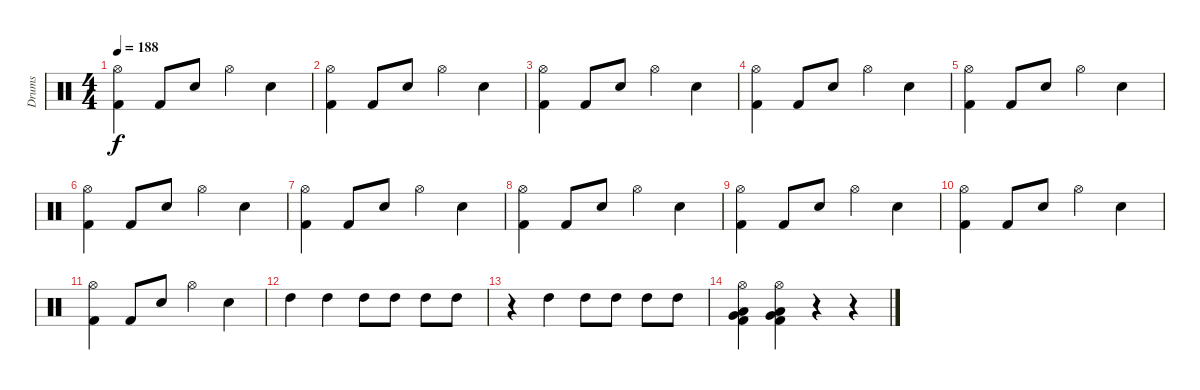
\track ("Drums" "Drums") {instrument percussion}
\staff {score}
\articulation defaults
\ts (4 4)
\tempo 188
\clef neutral
\ks c
("Hi-Hat (open)" "Kick (hit) 2").4{dy f} "Kick (hit) 2".8 "Electric Snare (hit)".8 "Hi-Hat (open)".4 "Electric Snare (hit)".4 |
("Hi-Hat (open)" "Kick (hit) 2").4 "Kick (hit) 2".8 "Electric Snare (hit)".8 "Hi-Hat (open)".4 "Electric Snare (hit)".4 |
("Hi-Hat (open)" "Kick (hit) 2").4 "Kick (hit) 2".8 "Electric Snare (hit)".8 "Hi-Hat (open)".4 "Electric Snare (hit)".4 |
("Hi-Hat (open)" "Kick (hit) 2").4 "Kick (hit) 2".8 "Electric Snare (hit)".8 "Hi-Hat (open)".4 "Electric Snare (hit)".4 |
("Hi-Hat (open)" "Kick (hit) 2").4 "Kick (hit) 2".8 "Electric Snare (hit)".8 "Hi-Hat (open)".4 "Electric Snare (hit)".4 |
("Hi-Hat (open)" "Kick (hit) 2").4 "Kick (hit) 2".8 "Electric Snare (hit)".8 "Hi-Hat (open)".4 "Electric Snare (hit)".4 |
("Hi-Hat (open)" "Kick (hit) 2").4 "Kick (hit) 2".8 "Electric Snare (hit)".8 "Hi-Hat (open)".4 "Electric Snare (hit)".4 |
("Hi-Hat (open)" "Kick (hit) 2").4 "Kick (hit) 2".8 "Electric Snare (hit)".8 "Hi-Hat (open)".4 "Electric Snare (hit)".4 |
("Hi-Hat (open)" "Kick (hit) 2").4 "Kick (hit) 2".8 "Electric Snare (hit)".8 "Hi-Hat (open)".4 "Electric Snare (hit)".4 |
("Hi-Hat (open)" "Kick (hit) 2").4 "Kick (hit) 2".8 "Electric Snare (hit)".8 "Hi-Hat (open)".4 "Electric Snare (hit)".4 |
("Hi-Hat (open)" "Kick (hit) 2").4 "Kick (hit) 2".8 "Electric Snare (hit)".8 "Hi-Hat (open)".4 "Electric Snare (hit)".4 |
"High Tom (hit)".4 "High Tom (hit)".4 "High Tom (hit)".8 "High Tom (hit)".8 "High Tom (hit)".8 "High Tom (hit)".8 |
r.4 "High Tom (hit)".4 "High Tom (hit)".8 "High Tom (hit)".8 "High Tom (hit)".8 "High Tom (hit)".8 |
("Hi-Hat (open)" "Low Floor Tom (hit)" "Very Low Tom (hit)" "Kick (hit) 2").4 ("Hi-Hat (open)" "Low Floor Tom (hit)" "Very Low Tom (hit)" "Kick (hit) 2").4 r.4 r.4
